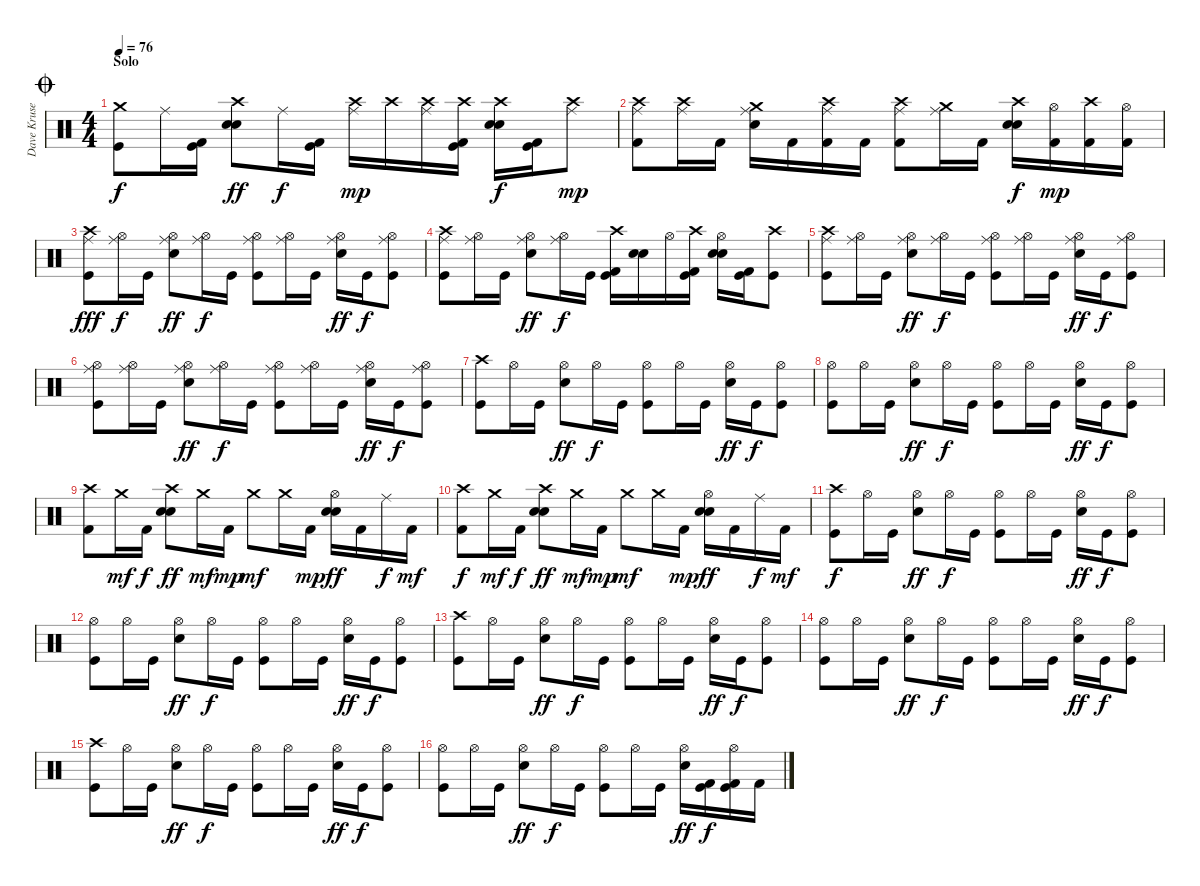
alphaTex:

\track ("Dave Krusen" "Dave Kruse") {instrument percussion}
\staff {score}
\articulation defaults
\ts (4 4)
\section ("" "Solo")
\jump coda
\tempo 76
\clef neutral
\ks c
("Crash medium (hit)" "Kick (hit)").8{dy f} "Ride (middle)".16 ("Kick (hit)" "Kick (hit) 2").16 ("Crash high (hit)" "Electric Snare (hit)" "Electric Snare (hit)").8{dy ff} "Ride (middle)".16{dy f} ("Kick (hit)" "Kick (hit) 2").16 ("Crash high (hit)" "Ride (middle)").16{dy mp} "Crash high (hit)".16 ("Crash high (hit)" "Ride (middle)").16 ("Crash high (hit)" "Kick (hit)" "Kick (hit) 2").16 ("Crash high (hit)" "Electric Snare (hit)" "Electric Snare (hit)").16{dy f} ("Kick (hit)" "Kick (hit) 2").16 ("Crash high (hit)" "Ride (middle)").8{dy mp} |
("Crash high (hit)" "Ride (middle)" "Kick (hit) 2").8 ("Crash high (hit)" "Ride (middle)").16 "Kick (hit) 2".16 ("Crash medium (hit)" "Ride (middle)" "Electric Snare (hit)").16 "Kick (hit) 2".16 ("Crash high (hit)" "Ride (middle)" "Kick (hit) 2").16 "Kick (hit) 2".16 ("Crash high (hit)" "Ride (middle)" "Kick (hit) 2").8 ("Crash medium (hit)" "Ride (middle)").16 "Kick (hit) 2".16 ("Crash high (hit)" "Electric Snare (hit)" "Electric Snare (hit)").16{dy f} ("Hi-Hat (open)" "Kick (hit) 2").16{dy mp} ("Crash high (hit)" "Kick (hit) 2").16 ("Hi-Hat (open)" "Kick (hit) 2").16 |
("Crash high (hit)" "Kick (hit)" "Ride (middle)").8{dy fff} ("Hi-Hat (open)" "Ride (middle)").16{dy f} "Kick (hit)".16 ("Electric Snare (hit)" "Hi-Hat (open)" "Ride (middle)").8{dy ff} ("Hi-Hat (open)" "Ride (middle)").16{dy f} "Kick (hit)".16 ("Kick (hit)" "Hi-Hat (open)" "Ride (middle)").8 ("Hi-Hat (open)" "Ride (middle)").16 "Kick (hit)".16 ("Electric Snare (hit)" "Hi-Hat (open)" "Ride (middle)").16{dy ff} "Kick (hit)".16{dy f} ("Kick (hit)" "Hi-Hat (open)" "Ride (middle)").8 |
("Crash high (hit)" "Kick (hit)" "Ride (middle)").8 ("Hi-Hat (open)" "Ride (middle)").16 "Kick (hit)".16 ("Electric Snare (hit)" "Hi-Hat (open)" "Ride (middle)").8{dy ff} ("Hi-Hat (open)" "Ride (middle)").16{dy f} "Kick (hit)".16 ("Kick (hit)" "Crash high (hit)" "Kick (hit) 2").16 ("Electric Snare (hit)" "Electric Snare (hit)").16{bd 60} "Hi-Hat (open)".16 ("Crash high (hit)" "Kick (hit)" "Kick (hit) 2").16 ("Hi-Hat (open)" "Electric Snare (hit)" "Electric Snare (hit)").16 ("Kick (hit)" "Kick (hit) 2").16 ("Kick (hit)" "Crash high (hit)").8 |
("Crash high (hit)" "Kick (hit)" "Ride (middle)").8 ("Hi-Hat (open)" "Ride (middle)").16 "Kick (hit)".16 ("Electric Snare (hit)" "Hi-Hat (open)" "Ride (middle)").8{dy ff} ("Hi-Hat (open)" "Ride (middle)").16{dy f} "Kick (hit)".16 ("Kick (hit)" "Hi-Hat (open)" "Ride (middle)").8 ("Hi-Hat (open)" "Ride (middle)").16 "Kick (hit)".16 ("Electric Snare (hit)" "Hi-Hat (open)" "Ride (middle)").16{dy ff} "Kick (hit)".16{dy f} ("Kick (hit)" "Hi-Hat (open)" "Ride (middle)").8 |
("Hi-Hat (open)" "Kick (hit)" "Ride (middle)").8 ("Hi-Hat (open)" "Ride (middle)").16 "Kick (hit)".16 ("Electric Snare (hit)" "Hi-Hat (open)" "Ride (middle)").8{dy ff} ("Hi-Hat (open)" "Ride (middle)").16{dy f} "Kick (hit)".16 ("Kick (hit)" "Hi-Hat (open)" "Ride (middle)").8 ("Hi-Hat (open)" "Ride (middle)").16 "Kick (hit)".16 ("Electric Snare (hit)" "Hi-Hat (open)" "Ride (middle)").16{dy ff} "Kick (hit)".16{dy f} ("Kick (hit)" "Hi-Hat (open)" "Ride (middle)").8 |
("Crash high (hit)" "Kick (hit)").8 "Hi-Hat (open)".16 "Kick (hit)".16 ("Electric Snare (hit)" "Hi-Hat (open)").8{dy ff} "Hi-Hat (open)".16{dy f} "Kick (hit)".16 ("Kick (hit)" "Hi-Hat (open)").8 "Hi-Hat (open)".16 "Kick (hit)".16 ("Electric Snare (hit)" "Hi-Hat (open)").16{dy ff} "Kick (hit)".16{dy f} ("Kick (hit)" "Hi-Hat (open)").8 |
("Hi-Hat (open)" "Kick (hit)").8 "Hi-Hat (open)".16 "Kick (hit)".16 ("Electric Snare (hit)" "Hi-Hat (open)").8{dy ff} "Hi-Hat (open)".16{dy f} "Kick (hit)".16 ("Kick (hit)" "Hi-Hat (open)").8 "Hi-Hat (open)".16 "Kick (hit)".16 ("Electric Snare (hit)" "Hi-Hat (open)").16{dy ff} "Kick (hit)".16{dy f} ("Kick (hit)" "Hi-Hat (open)").8 |
("Crash high (hit)" "Kick (hit) 2").8 "Crash medium (hit)".16{dy mf} "Kick (hit) 2".16{dy f} ("Crash high (hit)" "Electric Snare (hit)" "Electric Snare (hit)").8{dy ff} "Crash medium (hit)".16{dy mf} "Kick (hit) 2".16{dy mp} "Crash medium (hit)".8{dy mf} "Crash medium (hit)".16 "Kick (hit) 2".16{dy mp} ("Hi-Hat (open)" "Electric Snare (hit)" "Electric Snare (hit)").16{dy ff} "Kick (hit) 2".16 "Ride (middle)".16{dy f} "Kick (hit) 2".16{dy mf} |
("Crash high (hit)" "Kick (hit) 2").8{dy f} "Crash medium (hit)".16{dy mf} "Kick (hit) 2".16{dy f} ("Crash high (hit)" "Electric Snare (hit)" "Electric Snare (hit)").8{dy ff} "Crash medium (hit)".16{dy mf} "Kick (hit) 2".16{dy mp} "Crash medium (hit)".8{dy mf} "Crash medium (hit)".16 "Kick (hit) 2".16{dy mp} ("Hi-Hat (open)" "Electric Snare (hit)" "Electric Snare (hit)").16{dy ff} "Kick (hit) 2".16 "Ride (middle)".16{dy f} "Kick (hit) 2".16{dy mf} |
("Crash high (hit)" "Kick (hit)").8{dy f} "Hi-Hat (open)".16 "Kick (hit)".16 ("Electric Snare (hit)" "Hi-Hat (open)").8{dy ff} "Hi-Hat (open)".16{dy f} "Kick (hit)".16 ("Kick (hit)" "Hi-Hat (open)").8 "Hi-Hat (open)".16 "Kick (hit)".16 ("Electric Snare (hit)" "Hi-Hat (open)").16{dy ff} "Kick (hit)".16{dy f} ("Kick (hit)" "Hi-Hat (open)").8 |
("Hi-Hat (open)" "Kick (hit)").8 "Hi-Hat (open)".16 "Kick (hit)".16 ("Electric Snare (hit)" "Hi-Hat (open)").8{dy ff} "Hi-Hat (open)".16{dy f} "Kick (hit)".16 ("Kick (hit)" "Hi-Hat (open)").8 "Hi-Hat (open)".16 "Kick (hit)".16 ("Electric Snare (hit)" "Hi-Hat (open)").16{dy ff} "Kick (hit)".16{dy f} ("Kick (hit)" "Hi-Hat (open)").8 |
("Crash high (hit)" "Kick (hit)").8 "Hi-Hat (open)".16 "Kick (hit)".16 ("Electric Snare (hit)" "Hi-Hat (open)").8{dy ff} "Hi-Hat (open)".16{dy f} "Kick (hit)".16 ("Kick (hit)" "Hi-Hat (open)").8 "Hi-Hat (open)".16 "Kick (hit)".16 ("Electric Snare (hit)" "Hi-Hat (open)").16{dy ff} "Kick (hit)".16{dy f} ("Kick (hit)" "Hi-Hat (open)").8 |
("Hi-Hat (open)" "Kick (hit)").8 "Hi-Hat (open)".16 "Kick (hit)".16 ("Electric Snare (hit)" "Hi-Hat (open)").8{dy ff} "Hi-Hat (open)".16{dy f} "Kick (hit)".16 ("Kick (hit)" "Hi-Hat (open)").8 "Hi-Hat (open)".16 "Kick (hit)".16 ("Electric Snare (hit)" "Hi-Hat (open)").16{dy ff} "Kick (hit)".16{dy f} ("Kick (hit)" "Hi-Hat (open)").8 |
("Crash high (hit)" "Kick (hit)").8 "Hi-Hat (open)".16 "Kick (hit)".16 ("Electric Snare (hit)" "Hi-Hat (open)").8{dy ff} "Hi-Hat (open)".16{dy f} "Kick (hit)".16 ("Kick (hit)" "Hi-Hat (open)").8 "Hi-Hat (open)".16 "Kick (hit)".16 ("Electric Snare (hit)" "Hi-Hat (open)").16{dy ff} "Kick (hit)".16{dy f} ("Kick (hit)" "Hi-Hat (open)").8 |
("Hi-Hat (open)" "Kick (hit)").8 "Hi-Hat (open)".16 "Kick (hit)".16 ("Electric Snare (hit)" "Hi-Hat (open)").8{dy ff} "Hi-Hat (open)".16{dy f} "Kick (hit)".16 ("Kick (hit)" "Hi-Hat (open)").8 "Hi-Hat (open)".16 "Kick (hit)".16 ("Electric Snare (hit)" "Hi-Hat (open)").16{dy ff} ("Kick (hit)" "Kick (hit) 2").16{dy f} ("Kick (hit)" "Hi-Hat (open)" "Kick (hit) 2").16 "Kick (hit) 2".16
